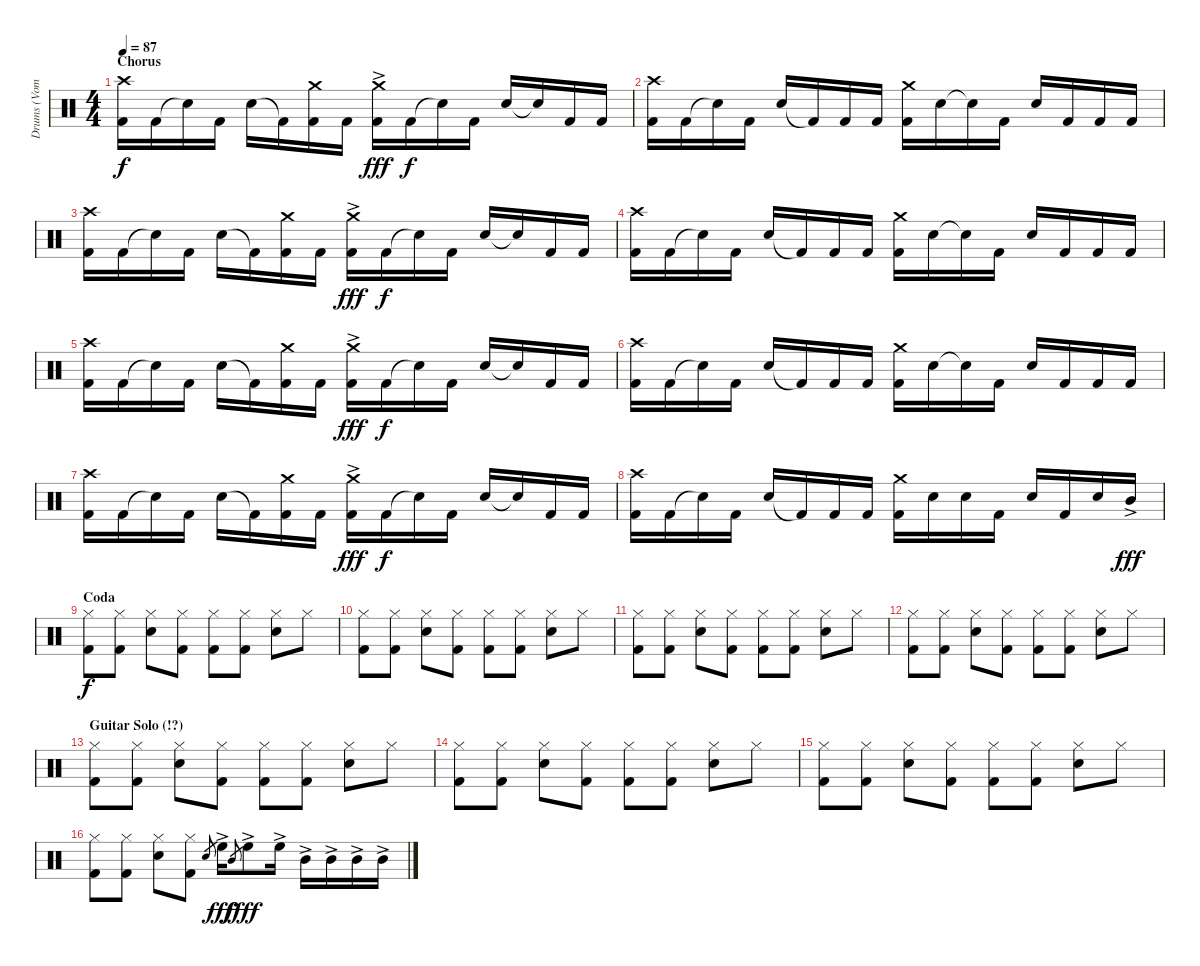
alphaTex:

\track ("Drums (Vom)" "Drums (Vom") {instrument percussion}
\staff {score}
\articulation defaults
\ts (4 4)
\section ("" "Chorus")
\tempo 87
\clef neutral
\ks c
("Crash high (hit)" "Kick (hit) 2").16{dy f} "Kick (hit) 2".16 "Snare (hit)"{t}.16 "Kick (hit) 2".16 "Snare (hit) 2".16 "Kick (hit) 2"{t}.16 ("Crash medium (hit)" "Kick (hit) 2").16 "Kick (hit) 2".16 ("Crash medium (hit)"{ac} "Kick (hit) 2").16{dy fff} "Kick (hit) 2".16{dy f} "Snare (hit)"{t}.16 "Kick (hit) 2".16 "Snare (hit) 2".16 "Snare (hit)"{t}.16 "Kick (hit) 2".16 "Kick (hit) 2".16 |
("Crash high (hit)" "Kick (hit) 2").16 "Kick (hit) 2".16 "Snare (hit)"{t}.16 "Kick (hit) 2".16 "Snare (hit) 2".16 "Kick (hit) 2"{t}.16 "Kick (hit) 2".16 "Kick (hit) 2".16 ("Crash medium (hit)" "Kick (hit) 2").16 "Snare (hit) 2".16 "Snare (hit)"{t}.16 "Kick (hit) 2".16 "Snare (hit) 2".16 "Kick (hit) 2".16 "Kick (hit) 2".16 "Kick (hit) 2".16 |
("Crash high (hit)" "Kick (hit) 2").16 "Kick (hit) 2".16 "Snare (hit)"{t}.16 "Kick (hit) 2".16 "Snare (hit) 2".16 "Kick (hit) 2"{t}.16 ("Crash medium (hit)" "Kick (hit) 2").16 "Kick (hit) 2".16 ("Crash medium (hit)"{ac} "Kick (hit) 2").16{dy fff} "Kick (hit) 2".16{dy f} "Snare (hit)"{t}.16 "Kick (hit) 2".16 "Snare (hit) 2".16 "Snare (hit)"{t}.16 "Kick (hit) 2".16 "Kick (hit) 2".16 |
("Crash high (hit)" "Kick (hit) 2").16 "Kick (hit) 2".16 "Snare (hit)"{t}.16 "Kick (hit) 2".16 "Snare (hit) 2".16 "Kick (hit) 2"{t}.16 "Kick (hit) 2".16 "Kick (hit) 2".16 ("Crash medium (hit)" "Kick (hit) 2").16 "Snare (hit) 2".16 "Snare (hit)"{t}.16 "Kick (hit) 2".16 "Snare (hit) 2".16 "Kick (hit) 2".16 "Kick (hit) 2".16 "Kick (hit) 2".16 |
("Crash high (hit)" "Kick (hit) 2").16 "Kick (hit) 2".16 "Snare (hit)"{t}.16 "Kick (hit) 2".16 "Snare (hit) 2".16 "Kick (hit) 2"{t}.16 ("Crash medium (hit)" "Kick (hit) 2").16 "Kick (hit) 2".16 ("Crash medium (hit)"{ac} "Kick (hit) 2").16{dy fff} "Kick (hit) 2".16{dy f} "Snare (hit)"{t}.16 "Kick (hit) 2".16 "Snare (hit) 2".16 "Snare (hit)"{t}.16 "Kick (hit) 2".16 "Kick (hit) 2".16 |
("Crash high (hit)" "Kick (hit) 2").16 "Kick (hit) 2".16 "Snare (hit)"{t}.16 "Kick (hit) 2".16 "Snare (hit) 2".16 "Kick (hit) 2"{t}.16 "Kick (hit) 2".16 "Kick (hit) 2".16 ("Crash medium (hit)" "Kick (hit) 2").16 "Snare (hit) 2".16 "Snare (hit)"{t}.16 "Kick (hit) 2".16 "Snare (hit) 2".16 "Kick (hit) 2".16 "Kick (hit) 2".16 "Kick (hit) 2".16 |
("Crash high (hit)" "Kick (hit) 2").16 "Kick (hit) 2".16 "Snare (hit)"{t}.16 "Kick (hit) 2".16 "Snare (hit) 2".16 "Kick (hit) 2"{t}.16 ("Crash medium (hit)" "Kick (hit) 2").16 "Kick (hit) 2".16 ("Crash medium (hit)"{ac} "Kick (hit) 2").16{dy fff} "Kick (hit) 2".16{dy f} "Snare (hit)"{t}.16 "Kick (hit) 2".16 "Snare (hit) 2".16 "Snare (hit)"{t}.16 "Kick (hit) 2".16 "Kick (hit) 2".16 |
("Crash high (hit)" "Kick (hit) 2").16 "Kick (hit) 2".16 "Snare (hit)"{t}.16 "Kick (hit) 2".16 "Snare (hit) 2".16 "Kick (hit) 2"{t}.16 "Kick (hit) 2".16 "Kick (hit) 2".16 ("Crash medium (hit)" "Kick (hit) 2").16 "Snare (hit) 2".16 "Snare (hit) 2".16 "Kick (hit) 2".16 "Snare (hit) 2".16 "Kick (hit) 2".16 "Snare (hit) 2".16 "Mid Tom (hit)"{ac}.16{dy fff} |
\section ("" "Coda")
("Hi-Hat (closed)" "Kick (hit) 2").8{dy f} ("Hi-Hat (closed)" "Kick (hit) 2").8 ("Hi-Hat (closed)" "Snare (hit) 2").8 ("Hi-Hat (closed)" "Kick (hit) 2").8 ("Hi-Hat (closed)" "Kick (hit) 2").8 ("Hi-Hat (closed)" "Kick (hit) 2").8 ("Hi-Hat (closed)" "Snare (hit) 2").8 "Hi-Hat (closed)".8 |
("Hi-Hat (closed)" "Kick (hit) 2").8 ("Hi-Hat (closed)" "Kick (hit) 2").8 ("Hi-Hat (closed)" "Snare (hit) 2").8 ("Hi-Hat (closed)" "Kick (hit) 2").8 ("Hi-Hat (closed)" "Kick (hit) 2").8 ("Hi-Hat (closed)" "Kick (hit) 2").8 ("Hi-Hat (closed)" "Snare (hit) 2").8 "Hi-Hat (closed)".8 |
("Hi-Hat (closed)" "Kick (hit) 2").8 ("Hi-Hat (closed)" "Kick (hit) 2").8 ("Hi-Hat (closed)" "Snare (hit) 2").8 ("Hi-Hat (closed)" "Kick (hit) 2").8 ("Hi-Hat (closed)" "Kick (hit) 2").8 ("Hi-Hat (closed)" "Kick (hit) 2").8 ("Hi-Hat (closed)" "Snare (hit) 2").8 "Hi-Hat (closed)".8 |
("Hi-Hat (closed)" "Kick (hit) 2").8 ("Hi-Hat (closed)" "Kick (hit) 2").8 ("Hi-Hat (closed)" "Snare (hit) 2").8 ("Hi-Hat (closed)" "Kick (hit) 2").8 ("Hi-Hat (closed)" "Kick (hit) 2").8 ("Hi-Hat (closed)" "Kick (hit) 2").8 ("Hi-Hat (closed)" "Snare (hit) 2").8 "Hi-Hat (closed)".8 |
\section ("" "Guitar Solo (!?)")
("Hi-Hat (closed)" "Kick (hit) 2").8 ("Hi-Hat (closed)" "Kick (hit) 2").8 ("Hi-Hat (closed)" "Snare (hit) 2").8 ("Hi-Hat (closed)" "Kick (hit) 2").8 ("Hi-Hat (closed)" "Kick (hit) 2").8 ("Hi-Hat (closed)" "Kick (hit) 2").8 ("Hi-Hat (closed)" "Snare (hit) 2").8 "Hi-Hat (closed)".8 |
("Hi-Hat (closed)" "Kick (hit) 2").8 ("Hi-Hat (closed)" "Kick (hit) 2").8 ("Hi-Hat (closed)" "Snare (hit) 2").8 ("Hi-Hat (closed)" "Kick (hit) 2").8 ("Hi-Hat (closed)" "Kick (hit) 2").8 ("Hi-Hat (closed)" "Kick (hit) 2").8 ("Hi-Hat (closed)" "Snare (hit) 2").8 "Hi-Hat (closed)".8 |
("Hi-Hat (closed)" "Kick (hit) 2").8 ("Hi-Hat (closed)" "Kick (hit) 2").8 ("Hi-Hat (closed)" "Snare (hit) 2").8 ("Hi-Hat (closed)" "Kick (hit) 2").8 ("Hi-Hat (closed)" "Kick (hit) 2").8 ("Hi-Hat (closed)" "Kick (hit) 2").8 ("Hi-Hat (closed)" "Snare (hit) 2").8 "Hi-Hat (closed)".8 |
("Hi-Hat (closed)" "Kick (hit) 2").8 ("Hi-Hat (closed)" "Kick (hit) 2").8 ("Hi-Hat (closed)" "Snare (hit) 2").8 ("Hi-Hat (closed)" "Kick (hit) 2").8 "Snare (hit) 2".8{gr} "High Floor Tom (hit)"{ac}.16{dy fff} "Mid Tom (hit)".8{gr dy f} "High Floor Tom (hit)"{ac}.8{dy fff} "High Floor Tom (hit)"{ac}.16 "Mid Tom (hit)"{ac}.16 "Mid Tom (hit)"{ac}.16 "Mid Tom (hit)"{ac}.16 "Mid Tom (hit)"{ac}.16
